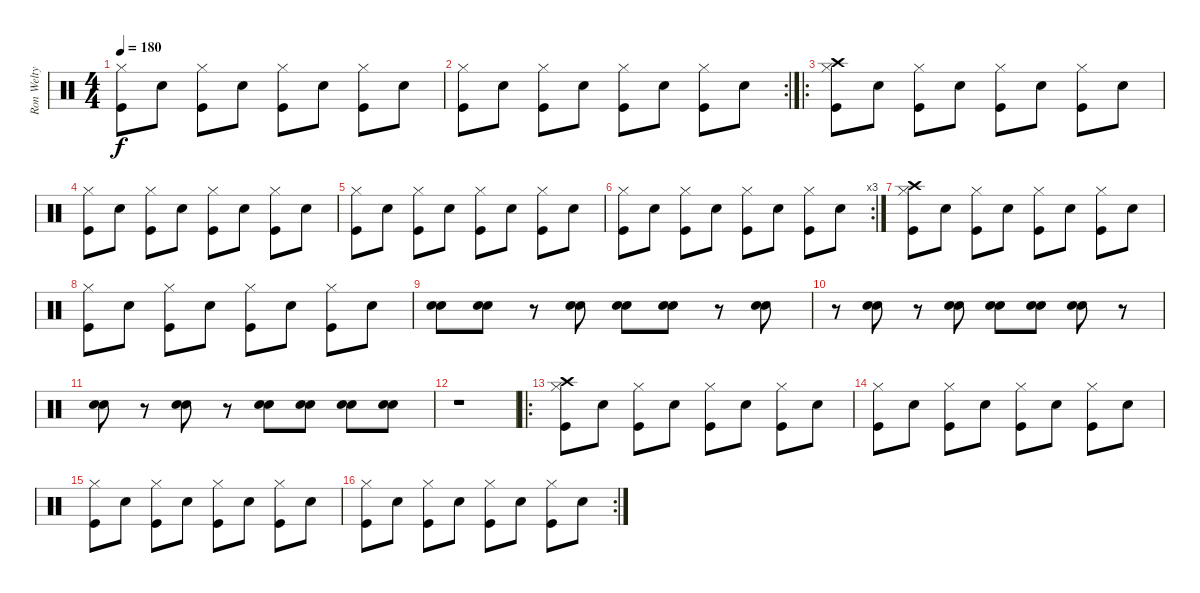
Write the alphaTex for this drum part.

\track ("Ron Welty (Drums)" "Ron Welty ") {instrument percussion}
\staff {score}
\articulation defaults
\ts (4 4)
\tempo 180
\clef neutral
\ks c
("Hi-Hat (closed)" "Kick (hit)").8{dy f} "Electric Snare (hit)".8 ("Hi-Hat (closed)" "Kick (hit)").8 "Electric Snare (hit)".8 ("Hi-Hat (closed)" "Kick (hit)").8 "Electric Snare (hit)".8 ("Hi-Hat (closed)" "Kick (hit)").8 "Electric Snare (hit)".8 |
\rc 2
("Hi-Hat (closed)" "Kick (hit)").8 "Electric Snare (hit)".8 ("Hi-Hat (closed)" "Kick (hit)").8 "Electric Snare (hit)".8 ("Hi-Hat (closed)" "Kick (hit)").8 "Electric Snare (hit)".8 ("Hi-Hat (closed)" "Kick (hit)").8 "Electric Snare (hit)".8 |
\ro
("Crash high (hit)" "Hi-Hat (closed)" "Kick (hit)").8 "Electric Snare (hit)".8 ("Hi-Hat (closed)" "Kick (hit)").8 "Electric Snare (hit)".8 ("Hi-Hat (closed)" "Kick (hit)").8 "Electric Snare (hit)".8 ("Hi-Hat (closed)" "Kick (hit)").8 "Electric Snare (hit)".8 |
("Hi-Hat (closed)" "Kick (hit)").8 "Electric Snare (hit)".8 ("Hi-Hat (closed)" "Kick (hit)").8 "Electric Snare (hit)".8 ("Hi-Hat (closed)" "Kick (hit)").8 "Electric Snare (hit)".8 ("Hi-Hat (closed)" "Kick (hit)").8 "Electric Snare (hit)".8 |
("Hi-Hat (closed)" "Kick (hit)").8 "Electric Snare (hit)".8 ("Hi-Hat (closed)" "Kick (hit)").8 "Electric Snare (hit)".8 ("Hi-Hat (closed)" "Kick (hit)").8 "Electric Snare (hit)".8 ("Hi-Hat (closed)" "Kick (hit)").8 "Electric Snare (hit)".8 |
\rc 3
("Hi-Hat (closed)" "Kick (hit)").8 "Electric Snare (hit)".8 ("Hi-Hat (closed)" "Kick (hit)").8 "Electric Snare (hit)".8 ("Hi-Hat (closed)" "Kick (hit)").8 "Electric Snare (hit)".8 ("Hi-Hat (closed)" "Kick (hit)").8 "Electric Snare (hit)".8 |
("Crash high (hit)" "Hi-Hat (closed)" "Kick (hit)").8 "Electric Snare (hit)".8 ("Hi-Hat (closed)" "Kick (hit)").8 "Electric Snare (hit)".8 ("Hi-Hat (closed)" "Kick (hit)").8 "Electric Snare (hit)".8 ("Hi-Hat (closed)" "Kick (hit)").8 "Electric Snare (hit)".8 |
("Hi-Hat (closed)" "Kick (hit)").8 "Electric Snare (hit)".8 ("Hi-Hat (closed)" "Kick (hit)").8 "Electric Snare (hit)".8 ("Hi-Hat (closed)" "Kick (hit)").8 "Electric Snare (hit)".8 ("Hi-Hat (closed)" "Kick (hit)").8 "Electric Snare (hit)".8 |
("Electric Snare (hit)" "Snare (hit) 2").8 ("Electric Snare (hit)" "Snare (hit) 2").8 r.8 ("Electric Snare (hit)" "Snare (hit) 2").8 ("Electric Snare (hit)" "Snare (hit) 2").8 ("Electric Snare (hit)" "Snare (hit) 2").8 r.8 ("Electric Snare (hit)" "Snare (hit) 2").8 |
r.8 ("Electric Snare (hit)" "Snare (hit) 2").8 r.8 ("Electric Snare (hit)" "Snare (hit) 2").8 ("Electric Snare (hit)" "Snare (hit) 2").8 ("Electric Snare (hit)" "Snare (hit) 2").8 ("Electric Snare (hit)" "Snare (hit) 2").8 r.8 |
("Electric Snare (hit)" "Snare (hit) 2").8 r.8 ("Electric Snare (hit)" "Snare (hit) 2").8 r.8 ("Electric Snare (hit)" "Snare (hit) 2").8 ("Electric Snare (hit)" "Snare (hit) 2").8 ("Electric Snare (hit)" "Snare (hit) 2").8 ("Electric Snare (hit)" "Snare (hit) 2").8 |
r.1 |
\ro
("Crash high (hit)" "Hi-Hat (closed)" "Kick (hit)").8 "Electric Snare (hit)".8 ("Hi-Hat (closed)" "Kick (hit)").8 "Electric Snare (hit)".8 ("Hi-Hat (closed)" "Kick (hit)").8 "Electric Snare (hit)".8 ("Hi-Hat (closed)" "Kick (hit)").8 "Electric Snare (hit)".8 |
("Hi-Hat (closed)" "Kick (hit)").8 "Electric Snare (hit)".8 ("Hi-Hat (closed)" "Kick (hit)").8 "Electric Snare (hit)".8 ("Hi-Hat (closed)" "Kick (hit)").8 "Electric Snare (hit)".8 ("Hi-Hat (closed)" "Kick (hit)").8 "Electric Snare (hit)".8 |
("Hi-Hat (closed)" "Kick (hit)").8 "Electric Snare (hit)".8 ("Hi-Hat (closed)" "Kick (hit)").8 "Electric Snare (hit)".8 ("Hi-Hat (closed)" "Kick (hit)").8 "Electric Snare (hit)".8 ("Hi-Hat (closed)" "Kick (hit)").8 "Electric Snare (hit)".8 |
\rc 2
("Hi-Hat (closed)" "Kick (hit)").8 "Electric Snare (hit)".8 ("Hi-Hat (closed)" "Kick (hit)").8 "Electric Snare (hit)".8 ("Hi-Hat (closed)" "Kick (hit)").8 "Electric Snare (hit)".8 ("Hi-Hat (closed)" "Kick (hit)").8 "Electric Snare (hit)".8
